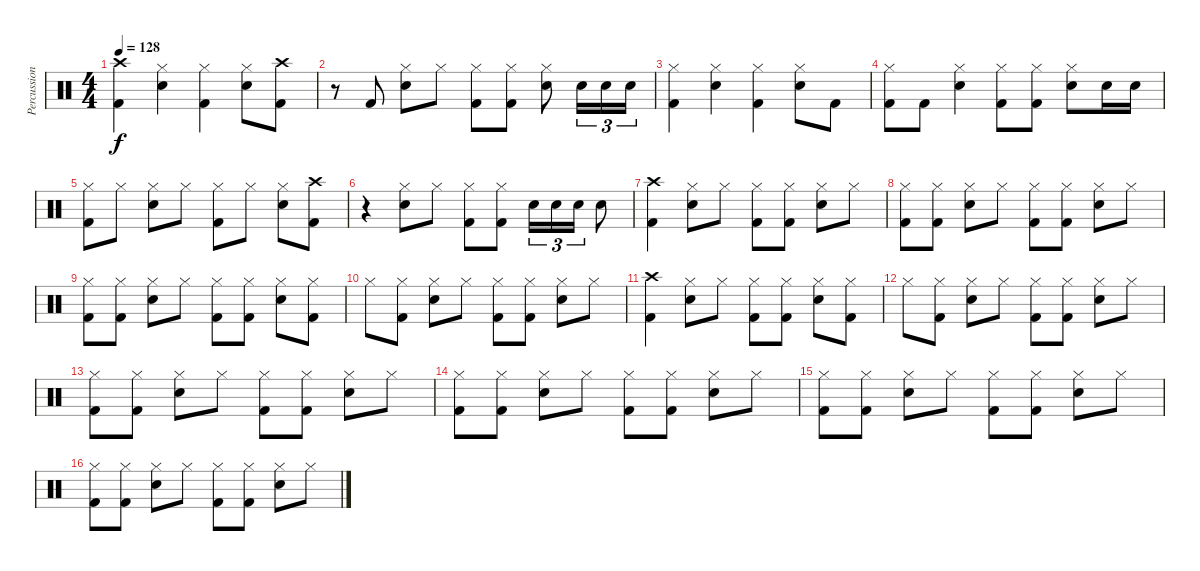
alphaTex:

\track ("Percussion" "Percussion") {instrument percussion}
\staff {score}
\articulation defaults
\ts (4 4)
\tempo 128
\clef neutral
\ks c
("Kick (hit) 2" "Crash high (hit)").4{dy f} ("Snare (hit) 2" "Hi-Hat (closed)").4 ("Kick (hit) 2" "Hi-Hat (closed)").4 ("Snare (hit) 2" "Hi-Hat (closed)").8 ("Kick (hit) 2" "Crash high (hit)").8 |
r.8 "Kick (hit) 2".8 ("Snare (hit) 2" "Hi-Hat (closed)").8 "Hi-Hat (closed)".8 ("Kick (hit) 2" "Hi-Hat (closed)").8 ("Kick (hit) 2" "Hi-Hat (closed)").8 ("Snare (hit) 2" "Hi-Hat (closed)").8 "Snare (hit) 2".16{tu (3 2)} "Snare (hit) 2".16{tu (3 2)} "Snare (hit) 2".16{tu (3 2)} |
("Kick (hit) 2" "Hi-Hat (closed)").4 ("Snare (hit) 2" "Hi-Hat (closed)").4 ("Kick (hit) 2" "Hi-Hat (closed)").4 ("Snare (hit) 2" "Hi-Hat (closed)").8 "Kick (hit) 2".8 |
("Kick (hit) 2" "Hi-Hat (closed)").8 "Kick (hit) 2".8 ("Snare (hit) 2" "Hi-Hat (closed)").4 ("Kick (hit) 2" "Hi-Hat (closed)").8 ("Kick (hit) 2" "Hi-Hat (closed)").8 ("Snare (hit) 2" "Hi-Hat (closed)").8 "Snare (hit) 2".16 "Snare (hit) 2".16 |
("Kick (hit) 2" "Hi-Hat (closed)").8 "Hi-Hat (closed)".8 ("Snare (hit) 2" "Hi-Hat (closed)").8 "Hi-Hat (closed)".8 ("Kick (hit) 2" "Hi-Hat (closed)").8 "Hi-Hat (closed)".8 ("Snare (hit) 2" "Hi-Hat (closed)").8 ("Kick (hit) 2" "Crash high (hit)").8 |
r.4 ("Snare (hit) 2" "Hi-Hat (closed)").8 "Hi-Hat (closed)".8 ("Kick (hit) 2" "Hi-Hat (closed)").8 ("Kick (hit) 2" "Hi-Hat (closed)").8 "Snare (hit) 2".16{tu (3 2)} "Snare (hit) 2".16{tu (3 2)} "Snare (hit) 2".16{tu (3 2)} "Snare (hit) 2".8 |
("Kick (hit) 2" "Crash high (hit)").4 ("Snare (hit) 2" "Hi-Hat (closed)").8 "Hi-Hat (closed)".8 ("Kick (hit) 2" "Hi-Hat (closed)").8 ("Kick (hit) 2" "Hi-Hat (closed)").8 ("Snare (hit) 2" "Hi-Hat (closed)").8 "Hi-Hat (closed)".8 |
("Kick (hit) 2" "Hi-Hat (closed)").8 ("Kick (hit) 2" "Hi-Hat (closed)").8 ("Snare (hit) 2" "Hi-Hat (closed)").8 "Hi-Hat (closed)".8 ("Kick (hit) 2" "Hi-Hat (closed)").8 ("Kick (hit) 2" "Hi-Hat (closed)").8 ("Snare (hit) 2" "Hi-Hat (closed)").8 "Hi-Hat (closed)".8 |
("Kick (hit) 2" "Hi-Hat (closed)").8 ("Kick (hit) 2" "Hi-Hat (closed)").8 ("Snare (hit) 2" "Hi-Hat (closed)").8 "Hi-Hat (closed)".8 ("Kick (hit) 2" "Hi-Hat (closed)").8 ("Kick (hit) 2" "Hi-Hat (closed)").8 ("Snare (hit) 2" "Hi-Hat (closed)").8 ("Kick (hit) 2" "Hi-Hat (closed)").8 |
"Hi-Hat (closed)".8 ("Kick (hit) 2" "Hi-Hat (closed)").8 ("Snare (hit) 2" "Hi-Hat (closed)").8 "Hi-Hat (closed)".8 ("Kick (hit) 2" "Hi-Hat (closed)").8 ("Kick (hit) 2" "Hi-Hat (closed)").8 ("Snare (hit) 2" "Hi-Hat (closed)").8 "Hi-Hat (closed)".8 |
("Kick (hit) 2" "Crash high (hit)").4 ("Snare (hit) 2" "Hi-Hat (closed)").8 "Hi-Hat (closed)".8 ("Kick (hit) 2" "Hi-Hat (closed)").8 ("Kick (hit) 2" "Hi-Hat (closed)").8 ("Snare (hit) 2" "Hi-Hat (closed)").8 ("Kick (hit) 2" "Hi-Hat (closed)").8 |
"Hi-Hat (closed)".8 ("Kick (hit) 2" "Hi-Hat (closed)").8 ("Snare (hit) 2" "Hi-Hat (closed)").8 "Hi-Hat (closed)".8 ("Kick (hit) 2" "Hi-Hat (closed)").8 ("Kick (hit) 2" "Hi-Hat (closed)").8 ("Snare (hit) 2" "Hi-Hat (closed)").8 "Hi-Hat (closed)".8 |
("Kick (hit) 2" "Hi-Hat (closed)").8 ("Kick (hit) 2" "Hi-Hat (closed)").8 ("Snare (hit) 2" "Hi-Hat (closed)").8 "Hi-Hat (closed)".8 ("Kick (hit) 2" "Hi-Hat (closed)").8 ("Kick (hit) 2" "Hi-Hat (closed)").8 ("Snare (hit) 2" "Hi-Hat (closed)").8 "Hi-Hat (closed)".8 |
("Kick (hit) 2" "Hi-Hat (closed)").8 ("Kick (hit) 2" "Hi-Hat (closed)").8 ("Snare (hit) 2" "Hi-Hat (closed)").8 "Hi-Hat (closed)".8 ("Kick (hit) 2" "Hi-Hat (closed)").8 ("Kick (hit) 2" "Hi-Hat (closed)").8 ("Snare (hit) 2" "Hi-Hat (closed)").8 "Hi-Hat (closed)".8 |
("Kick (hit) 2" "Hi-Hat (closed)").8 ("Kick (hit) 2" "Hi-Hat (closed)").8 ("Snare (hit) 2" "Hi-Hat (closed)").8 "Hi-Hat (closed)".8 ("Kick (hit) 2" "Hi-Hat (closed)").8 ("Kick (hit) 2" "Hi-Hat (closed)").8 ("Snare (hit) 2" "Hi-Hat (closed)").8 "Hi-Hat (closed)".8 |
("Kick (hit) 2" "Hi-Hat (closed)").8 ("Kick (hit) 2" "Hi-Hat (closed)").8 ("Snare (hit) 2" "Hi-Hat (closed)").8 "Hi-Hat (closed)".8 ("Kick (hit) 2" "Hi-Hat (closed)").8 ("Kick (hit) 2" "Hi-Hat (closed)").8 ("Snare (hit) 2" "Hi-Hat (closed)").8 "Hi-Hat (closed)".8
